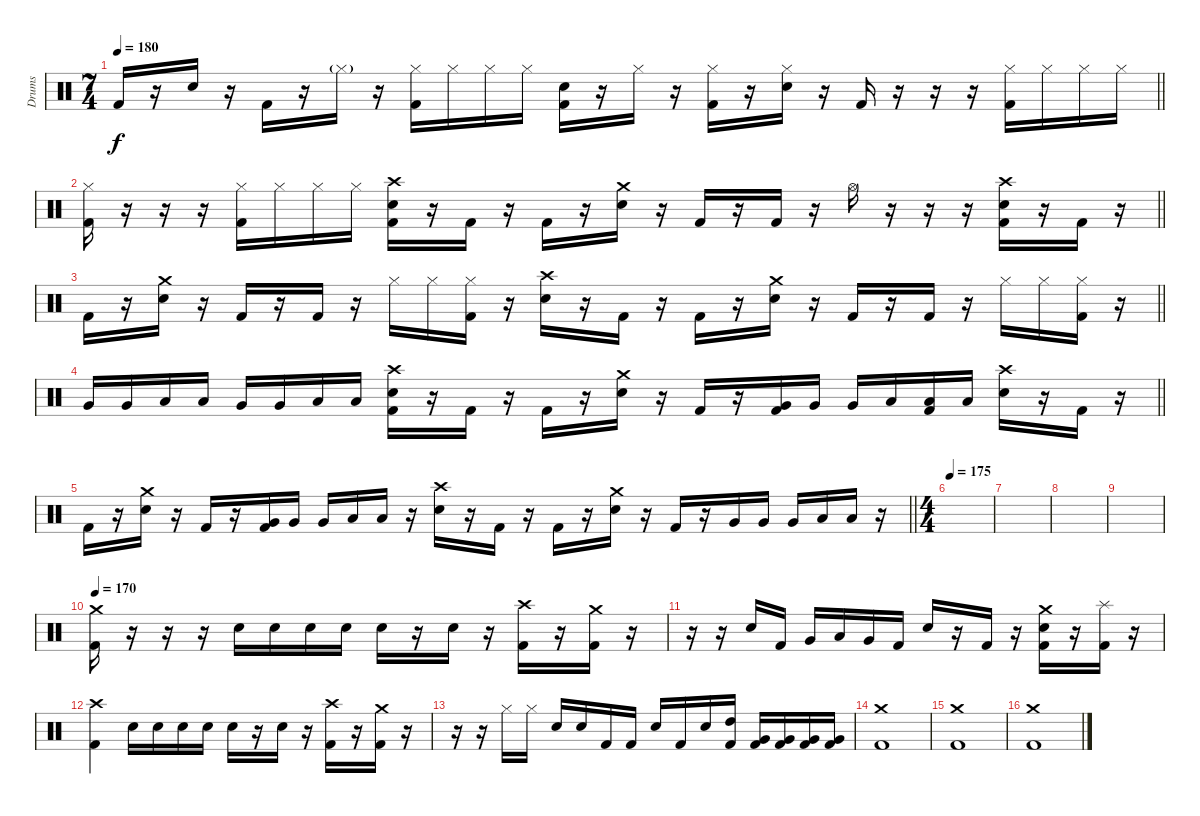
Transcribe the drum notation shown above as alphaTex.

\track ("Drums" "Drums") {instrument percussion}
\staff {score}
\articulation defaults
\ts (7 4)
\tempo 180
\clef neutral
\barLineRight lightlight
\ks c "Kick (hit) 2".16{dy f}
r.16 "Electric Snare (hit)".16 r.16 "Kick (hit) 2".16 r.16 "Hi-Hat (closed)"{g}.16 r.16 ("Hi-Hat (closed)" "Kick (hit) 2").16 "Hi-Hat (closed)".16 "Hi-Hat (closed)".16 "Hi-Hat (closed)".16 ("Electric Snare (hit)" "Kick (hit) 2").16 r.16 "Hi-Hat (closed)".16 r.16 ("Hi-Hat (closed)" "Kick (hit) 2").16 r.16 ("Hi-Hat (closed)" "Electric Snare (hit)").16 r.16 "Kick (hit) 2".16 r.16 r.16 r.16 ("Hi-Hat (closed)" "Kick (hit) 2").16 "Hi-Hat (closed)".16 "Hi-Hat (closed)".16 "Hi-Hat (closed)".16 |
\barLineRight lightlight
("Hi-Hat (closed)" "Kick (hit) 2").16 r.16 r.16 r.16 ("Hi-Hat (closed)" "Kick (hit) 2").16 "Hi-Hat (closed)".16 "Hi-Hat (closed)".16 "Hi-Hat (closed)".16 ("Crash high (hit)" "Electric Snare (hit)" "Kick (hit) 2").16 r.16 "Kick (hit) 2".16 r.16 "Kick (hit) 2".16 r.16 ("Crash medium (hit)" "Electric Snare (hit)").16 r.16 "Kick (hit) 2".16 r.16 "Kick (hit) 2".16 r.16 "Hi-Hat (open)".16 r.16 r.16 r.16 ("Crash high (hit)" "Electric Snare (hit)" "Kick (hit) 2").16 r.16 "Kick (hit) 2".16 r.16 |
\barLineRight lightlight "Kick (hit) 2".16
r.16 ("Crash medium (hit)" "Electric Snare (hit)").16 r.16 "Kick (hit) 2".16 r.16 "Kick (hit) 2".16 r.16 "Hi-Hat (closed)".16 "Hi-Hat (closed)".16 ("Hi-Hat (closed)" "Kick (hit) 2").16 r.16 ("Crash high (hit)" "Electric Snare (hit)").16 r.16 "Kick (hit) 2".16 r.16 "Kick (hit) 2".16 r.16 ("Crash medium (hit)" "Electric Snare (hit)").16 r.16 "Kick (hit) 2".16 r.16 "Kick (hit) 2".16 r.16 "Hi-Hat (closed)".16 "Hi-Hat (closed)".16 ("Hi-Hat (closed)" "Kick (hit) 2").16 r.16 |
\barLineRight lightlight "Very Low Tom (hit)".16 "Very Low Tom (hit)".16 "Low Floor Tom (hit)".16 "Low Floor Tom (hit)".16 "Very Low Tom (hit)".16 "Very Low Tom (hit)".16 "Low Floor Tom (hit)".16 "Low Floor Tom (hit)".16
("Crash high (hit)" "Electric Snare (hit)" "Kick (hit) 2").16 r.16 "Kick (hit) 2".16 r.16 "Kick (hit) 2".16 r.16 ("Crash medium (hit)" "Electric Snare (hit)").16 r.16 "Kick (hit) 2".16 r.16 ("Very Low Tom (hit)" "Kick (hit) 2").16 "Very Low Tom (hit)".16 "Very Low Tom (hit)".16 "Low Floor Tom (hit)".16 ("Low Floor Tom (hit)" "Kick (hit) 2").16 "Low Floor Tom (hit)".16 ("Crash high (hit)" "Electric Snare (hit)").16 r.16 "Kick (hit) 2".16 r.16 |
\barLineRight lightlight "Kick (hit) 2".16
r.16 ("Crash medium (hit)" "Electric Snare (hit)").16 r.16 "Kick (hit) 2".16 r.16 ("Very Low Tom (hit)" "Kick (hit) 2").16 "Very Low Tom (hit)".16 "Very Low Tom (hit)".16 "Low Floor Tom (hit)".16 "Low Floor Tom (hit)".16 r.16 ("Crash high (hit)" "Electric Snare (hit)").16 r.16 "Kick (hit) 2".16 r.16 "Kick (hit) 2".16 r.16 ("Crash medium (hit)" "Electric Snare (hit)").16 r.16 "Kick (hit) 2".16 r.16 "Very Low Tom (hit)".16 "Very Low Tom (hit)".16 "Very Low Tom (hit)".16 "Low Floor Tom (hit)".16 "Low Floor Tom (hit)".16 r.16 |
\ts (4 4)
\tempo 175
|
|
|
|
\tempo 170
("Crash medium (hit)" "Kick (hit) 2").16 r.16 r.16 r.16 "Electric Snare (hit)".16 "Electric Snare (hit)".16 "Electric Snare (hit)".16 "Electric Snare (hit)".16 "Electric Snare (hit)".16 r.16 "Electric Snare (hit)".16 r.16 ("Crash high (hit)" "Kick (hit) 2").16 r.16 ("Crash medium (hit)" "Kick (hit) 2").16 r.16 |
r.16 r.16 "Electric Snare (hit)".16 "Kick (hit) 2".16 "Very Low Tom (hit)".16 "Low Floor Tom (hit)".16 "Very Low Tom (hit)".16 "Kick (hit) 2".16 "Electric Snare (hit)".16 r.16 "Kick (hit) 2".16 r.16 ("Crash medium (hit)" "Electric Snare (hit)" "Kick (hit) 2").16 r.16 ("Splash (hit)" "Kick (hit) 2").16 r.16 |
("Crash high (hit)" "Kick (hit) 2").4 "Electric Snare (hit)".16 "Electric Snare (hit)".16 "Electric Snare (hit)".16 "Electric Snare (hit)".16 "Electric Snare (hit)".16 r.16 "Electric Snare (hit)".16 r.16 ("Crash high (hit)" "Kick (hit) 2").16 r.16 ("Crash medium (hit)" "Kick (hit) 2").16 r.16 |
r.16 r.16 "Hi-Hat (closed)".16 "Hi-Hat (closed)".16 "Electric Snare (hit)".16 "Electric Snare (hit)".16 "Kick (hit) 2".16 "Kick (hit) 2".16 "Electric Snare (hit)".16 "Kick (hit) 2".16 "Electric Snare (hit)".16 ("High Tom (hit)" "Kick (hit) 2").16 ("Very Low Tom (hit)" "Kick (hit) 2").16 ("Very Low Tom (hit)" "Kick (hit) 2").16 ("Very Low Tom (hit)" "Kick (hit) 2").16 ("Very Low Tom (hit)" "Kick (hit) 2").16 |
("Crash medium (hit)" "Kick (hit) 2").1 |
("Crash medium (hit)" "Kick (hit) 2").1 |
("Crash medium (hit)" "Kick (hit) 2").1
